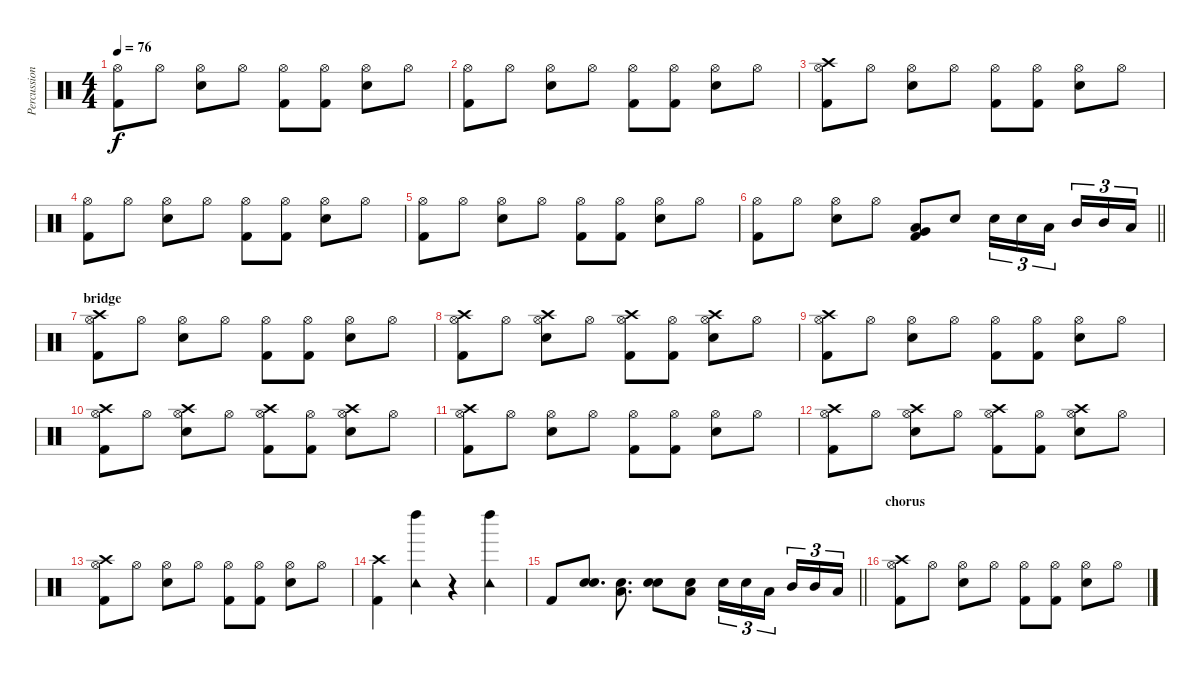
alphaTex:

\track ("Percussioni" "Percussion") {instrument percussion}
\staff {score}
\articulation defaults
\ts (4 4)
\tempo 76
\clef neutral
\ks c
("Hi-Hat (open)" "Kick (hit) 2").8{dy f} "Hi-Hat (open)".8 ("Hi-Hat (open)" "Electric Snare (hit)").8 "Hi-Hat (open)".8 ("Hi-Hat (open)" "Kick (hit) 2").8 ("Hi-Hat (open)" "Kick (hit) 2").8 ("Hi-Hat (open)" "Electric Snare (hit)").8 "Hi-Hat (open)".8 |
("Hi-Hat (open)" "Kick (hit) 2").8 "Hi-Hat (open)".8 ("Hi-Hat (open)" "Electric Snare (hit)").8 "Hi-Hat (open)".8 ("Hi-Hat (open)" "Kick (hit) 2").8 ("Hi-Hat (open)" "Kick (hit) 2").8 ("Hi-Hat (open)" "Electric Snare (hit)").8 "Hi-Hat (open)".8 |
("Hi-Hat (open)" "Kick (hit) 2" "Crash high (hit)").8 "Hi-Hat (open)".8 ("Hi-Hat (open)" "Electric Snare (hit)").8 "Hi-Hat (open)".8 ("Hi-Hat (open)" "Kick (hit) 2").8 ("Hi-Hat (open)" "Kick (hit) 2").8 ("Hi-Hat (open)" "Electric Snare (hit)").8 "Hi-Hat (open)".8 |
("Hi-Hat (open)" "Kick (hit) 2").8 "Hi-Hat (open)".8 ("Hi-Hat (open)" "Electric Snare (hit)").8 "Hi-Hat (open)".8 ("Hi-Hat (open)" "Kick (hit) 2").8 ("Hi-Hat (open)" "Kick (hit) 2").8 ("Hi-Hat (open)" "Electric Snare (hit)").8 "Hi-Hat (open)".8 |
("Hi-Hat (open)" "Kick (hit) 2").8 "Hi-Hat (open)".8 ("Hi-Hat (open)" "Electric Snare (hit)").8 "Hi-Hat (open)".8 ("Hi-Hat (open)" "Kick (hit) 2").8 ("Hi-Hat (open)" "Kick (hit) 2").8 ("Hi-Hat (open)" "Electric Snare (hit)").8 "Hi-Hat (open)".8 |
\barLineRight lightlight
("Hi-Hat (open)" "Kick (hit) 2").8 "Hi-Hat (open)".8 ("Hi-Hat (open)" "Electric Snare (hit)").8 "Hi-Hat (open)".8 ("Kick (hit) 2" "Low Floor Tom (hit)" "Very Low Tom (hit)").8 "Electric Snare (hit)".8 "Electric Snare (hit)".16{tu (3 2)} "Electric Snare (hit)".16{tu (3 2)} "Low Tom (hit)".16{tu (3 2) beam splitsecondary} "Mid Tom (hit)".16{tu (3 2)} "Mid Tom (hit)".16{tu (3 2)} "Low Floor Tom (hit)".16{tu (3 2)} |
\section ("" "bridge")
("Hi-Hat (open)" "Kick (hit) 2" "Crash high (hit)").8 "Hi-Hat (open)".8 ("Hi-Hat (open)" "Electric Snare (hit)").8 "Hi-Hat (open)".8 ("Hi-Hat (open)" "Kick (hit) 2").8 ("Hi-Hat (open)" "Kick (hit) 2").8 ("Hi-Hat (open)" "Electric Snare (hit)").8 "Hi-Hat (open)".8 |
("Hi-Hat (open)" "Kick (hit) 2" "Crash high (hit)").8 "Hi-Hat (open)".8 ("Hi-Hat (open)" "Electric Snare (hit)" "Crash high (hit)").8 "Hi-Hat (open)".8 ("Hi-Hat (open)" "Kick (hit) 2" "Crash high (hit)").8 ("Hi-Hat (open)" "Kick (hit) 2").8 ("Hi-Hat (open)" "Electric Snare (hit)" "Crash high (hit)").8 "Hi-Hat (open)".8 |
("Hi-Hat (open)" "Kick (hit) 2" "Crash high (hit)").8 "Hi-Hat (open)".8 ("Hi-Hat (open)" "Electric Snare (hit)").8 "Hi-Hat (open)".8 ("Hi-Hat (open)" "Kick (hit) 2").8 ("Hi-Hat (open)" "Kick (hit) 2").8 ("Hi-Hat (open)" "Electric Snare (hit)").8 "Hi-Hat (open)".8 |
("Hi-Hat (open)" "Kick (hit) 2" "Crash high (hit)").8 "Hi-Hat (open)".8 ("Hi-Hat (open)" "Electric Snare (hit)" "Crash high (hit)").8 "Hi-Hat (open)".8 ("Hi-Hat (open)" "Kick (hit) 2" "Crash high (hit)").8 ("Hi-Hat (open)" "Kick (hit) 2").8 ("Hi-Hat (open)" "Electric Snare (hit)" "Crash high (hit)").8 "Hi-Hat (open)".8 |
("Hi-Hat (open)" "Kick (hit) 2" "Crash high (hit)").8 "Hi-Hat (open)".8 ("Hi-Hat (open)" "Electric Snare (hit)").8 "Hi-Hat (open)".8 ("Hi-Hat (open)" "Kick (hit) 2").8 ("Hi-Hat (open)" "Kick (hit) 2").8 ("Hi-Hat (open)" "Electric Snare (hit)").8 "Hi-Hat (open)".8 |
("Hi-Hat (open)" "Kick (hit) 2" "Crash high (hit)").8 "Hi-Hat (open)".8 ("Hi-Hat (open)" "Electric Snare (hit)" "Crash high (hit)").8 "Hi-Hat (open)".8 ("Hi-Hat (open)" "Kick (hit) 2" "Crash high (hit)").8 ("Hi-Hat (open)" "Kick (hit) 2").8 ("Hi-Hat (open)" "Electric Snare (hit)" "Crash high (hit)").8 "Hi-Hat (open)".8 |
("Hi-Hat (open)" "Kick (hit) 2" "Crash high (hit)").8 "Hi-Hat (open)".8 ("Hi-Hat (open)" "Electric Snare (hit)").8 "Hi-Hat (open)".8 ("Hi-Hat (open)" "Kick (hit) 2").8 ("Hi-Hat (open)" "Kick (hit) 2").8 ("Hi-Hat (open)" "Electric Snare (hit)").8 "Hi-Hat (open)".8 |
("Crash high (hit)" "Kick (hit) 2").4 ("Tambourine (hit)" "Left Maraca (hit)").4 r.4 ("Tambourine (hit)" "Left Maraca (hit)").4 |
\barLineRight lightlight "Kick (hit) 2".8
("Snare (hit) 2" "Electric Snare (hit)").8{d} ("Low Tom (hit)" "Electric Snare (hit)").8{d} ("Snare (hit) 2" "Electric Snare (hit)").8 ("Low Tom (hit)" "Electric Snare (hit)").8 "Electric Snare (hit)".16{tu (3 2)} "Electric Snare (hit)".16{tu (3 2)} "Low Tom (hit)".16{tu (3 2) beam splitsecondary} "Mid Tom (hit)".16{tu (3 2)} "Mid Tom (hit)".16{tu (3 2)} "Low Floor Tom (hit)".16{tu (3 2)} |
\section ("" "chorus")
("Hi-Hat (open)" "Kick (hit) 2" "Crash high (hit)").8 "Hi-Hat (open)".8 ("Hi-Hat (open)" "Electric Snare (hit)").8 "Hi-Hat (open)".8 ("Hi-Hat (open)" "Kick (hit) 2").8 ("Hi-Hat (open)" "Kick (hit) 2").8 ("Hi-Hat (open)" "Electric Snare (hit)").8 "Hi-Hat (open)".8
